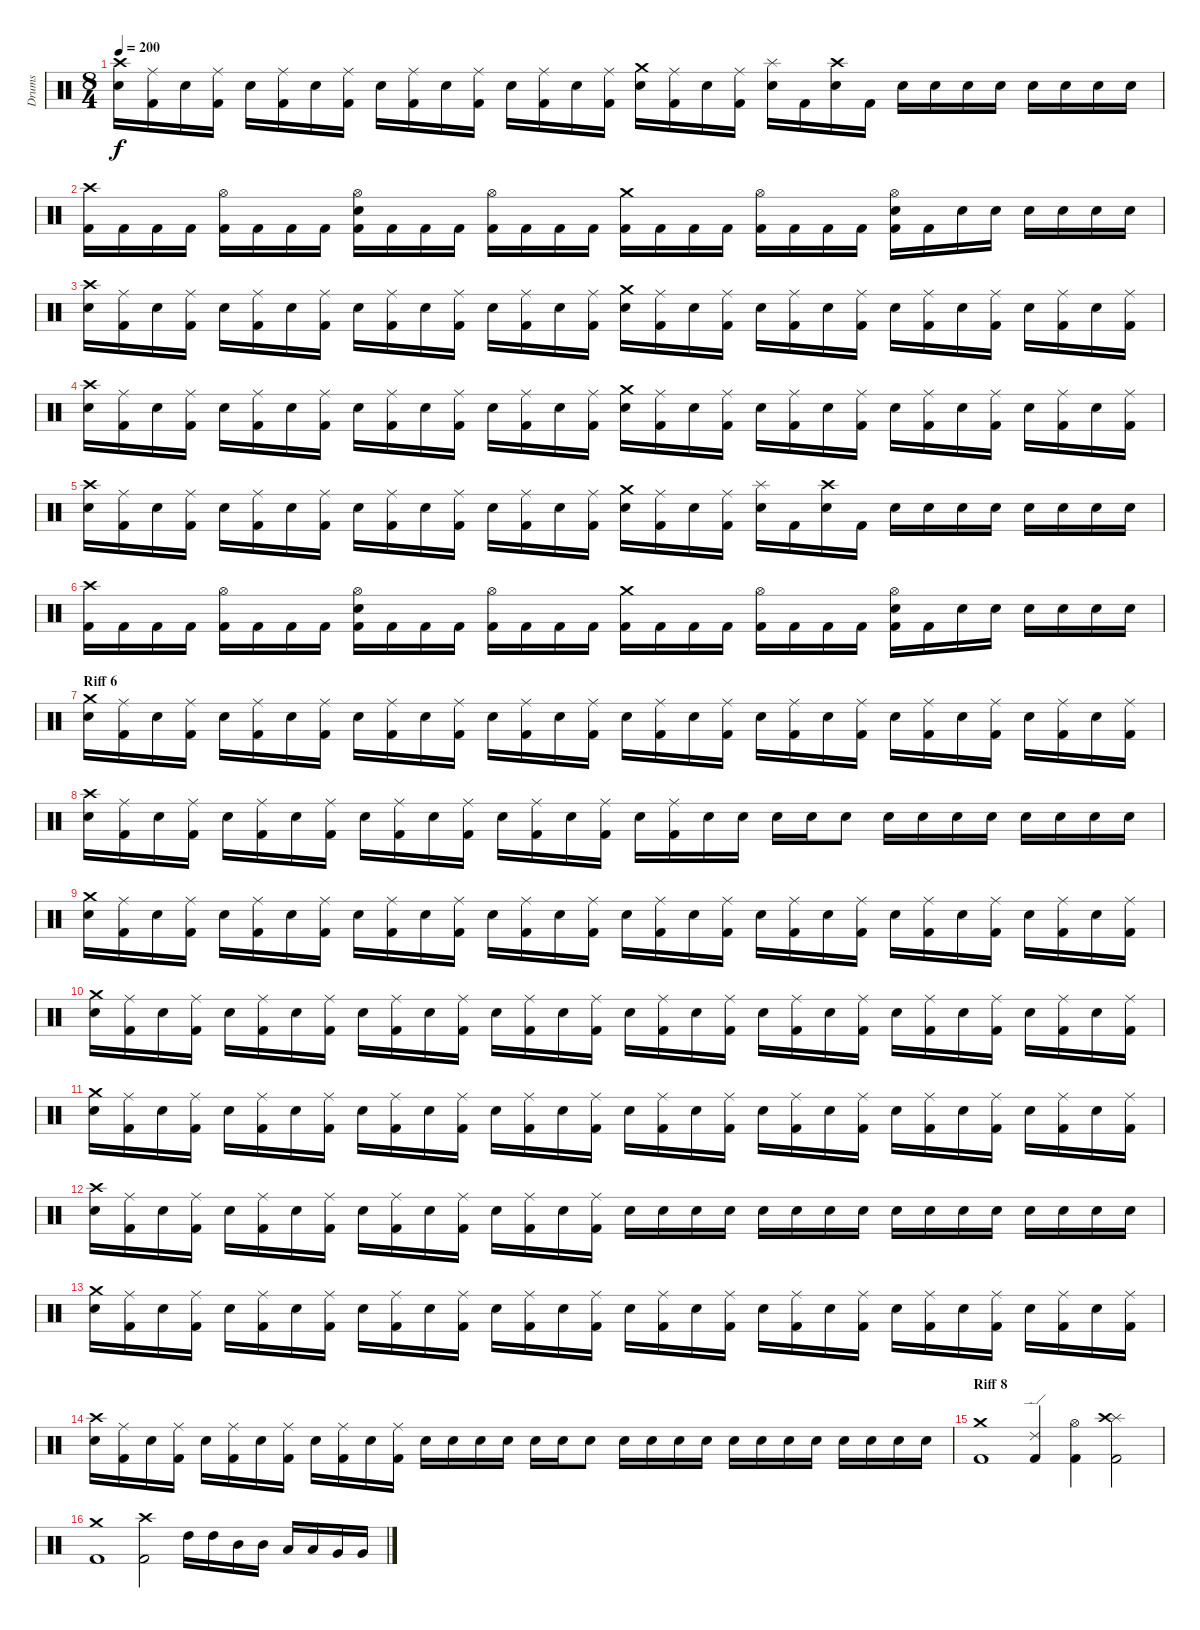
\track ("Drums" "Drums") {instrument percussion}
\staff {score}
\articulation defaults
\ts (8 4)
\tempo 200
\clef neutral
\ks c
("Crash high (hit)" "Electric Snare (hit)").16{dy f} ("Ride (middle)" "Kick (hit) 2").16 "Electric Snare (hit)".16 ("Ride (middle)" "Kick (hit) 2").16 "Electric Snare (hit)".16 ("Ride (middle)" "Kick (hit) 2").16 "Electric Snare (hit)".16 ("Ride (middle)" "Kick (hit) 2").16 "Electric Snare (hit)".16 ("Ride (middle)" "Kick (hit) 2").16 "Electric Snare (hit)".16 ("Ride (middle)" "Kick (hit) 2").16 "Electric Snare (hit)".16 ("Ride (middle)" "Kick (hit) 2").16 "Electric Snare (hit)".16 ("Ride (middle)" "Kick (hit) 2").16 ("Crash medium (hit)" "Electric Snare (hit)").16 ("Ride (middle)" "Kick (hit) 2").16 "Electric Snare (hit)".16 ("Ride (middle)" "Kick (hit) 2").16 ("Splash (hit)" "Electric Snare (hit)").16 "Kick (hit) 2".16 ("Crash high (hit)" "Electric Snare (hit)").16 "Kick (hit) 2".16 "Electric Snare (hit)".16 "Electric Snare (hit)".16 "Electric Snare (hit)".16 "Electric Snare (hit)".16 "Electric Snare (hit)".16 "Electric Snare (hit)".16 "Electric Snare (hit)".16 "Electric Snare (hit)".16 |
("Crash high (hit)" "Kick (hit) 2").16 "Kick (hit) 2".16 "Kick (hit) 2".16 "Kick (hit) 2".16 ("Hi-Hat (open)" "Kick (hit) 2").16 "Kick (hit) 2".16 "Kick (hit) 2".16 "Kick (hit) 2".16 ("Hi-Hat (open)" "Electric Snare (hit)" "Kick (hit) 2").16 "Kick (hit) 2".16 "Kick (hit) 2".16 "Kick (hit) 2".16 ("Hi-Hat (open)" "Kick (hit) 2").16 "Kick (hit) 2".16 "Kick (hit) 2".16 "Kick (hit) 2".16 ("Crash medium (hit)" "Kick (hit) 2").16 "Kick (hit) 2".16 "Kick (hit) 2".16 "Kick (hit) 2".16 ("Hi-Hat (open)" "Kick (hit) 2").16 "Kick (hit) 2".16 "Kick (hit) 2".16 "Kick (hit) 2".16 ("Hi-Hat (open)" "Electric Snare (hit)" "Kick (hit) 2").16 "Kick (hit) 2".16 "Electric Snare (hit)".16 "Electric Snare (hit)".16 "Electric Snare (hit)".16 "Electric Snare (hit)".16 "Electric Snare (hit)".16 "Electric Snare (hit)".16 |
("Crash high (hit)" "Electric Snare (hit)").16 ("Ride (middle)" "Kick (hit) 2").16 "Electric Snare (hit)".16 ("Ride (middle)" "Kick (hit) 2").16 "Electric Snare (hit)".16 ("Ride (middle)" "Kick (hit) 2").16 "Electric Snare (hit)".16 ("Ride (middle)" "Kick (hit) 2").16 "Electric Snare (hit)".16 ("Ride (middle)" "Kick (hit) 2").16 "Electric Snare (hit)".16 ("Ride (middle)" "Kick (hit) 2").16 "Electric Snare (hit)".16 ("Ride (middle)" "Kick (hit) 2").16 "Electric Snare (hit)".16 ("Ride (middle)" "Kick (hit) 2").16 ("Crash medium (hit)" "Electric Snare (hit)").16 ("Ride (middle)" "Kick (hit) 2").16 "Electric Snare (hit)".16 ("Ride (middle)" "Kick (hit) 2").16 "Electric Snare (hit)".16 ("Ride (middle)" "Kick (hit) 2").16 "Electric Snare (hit)".16 ("Ride (middle)" "Kick (hit) 2").16 "Electric Snare (hit)".16 ("Ride (middle)" "Kick (hit) 2").16 "Electric Snare (hit)".16 ("Ride (middle)" "Kick (hit) 2").16 "Electric Snare (hit)".16 ("Ride (middle)" "Kick (hit) 2").16 "Electric Snare (hit)".16 ("Ride (middle)" "Kick (hit) 2").16 |
("Crash high (hit)" "Electric Snare (hit)").16 ("Ride (middle)" "Kick (hit) 2").16 "Electric Snare (hit)".16 ("Ride (middle)" "Kick (hit) 2").16 "Electric Snare (hit)".16 ("Ride (middle)" "Kick (hit) 2").16 "Electric Snare (hit)".16 ("Ride (middle)" "Kick (hit) 2").16 "Electric Snare (hit)".16 ("Ride (middle)" "Kick (hit) 2").16 "Electric Snare (hit)".16 ("Ride (middle)" "Kick (hit) 2").16 "Electric Snare (hit)".16 ("Ride (middle)" "Kick (hit) 2").16 "Electric Snare (hit)".16 ("Ride (middle)" "Kick (hit) 2").16 ("Crash medium (hit)" "Electric Snare (hit)").16 ("Ride (middle)" "Kick (hit) 2").16 "Electric Snare (hit)".16 ("Ride (middle)" "Kick (hit) 2").16 "Electric Snare (hit)".16 ("Ride (middle)" "Kick (hit) 2").16 "Electric Snare (hit)".16 ("Ride (middle)" "Kick (hit) 2").16 "Electric Snare (hit)".16 ("Ride (middle)" "Kick (hit) 2").16 "Electric Snare (hit)".16 ("Ride (middle)" "Kick (hit) 2").16 "Electric Snare (hit)".16 ("Ride (middle)" "Kick (hit) 2").16 "Electric Snare (hit)".16 ("Ride (middle)" "Kick (hit) 2").16 |
("Crash high (hit)" "Electric Snare (hit)").16 ("Ride (middle)" "Kick (hit) 2").16 "Electric Snare (hit)".16 ("Ride (middle)" "Kick (hit) 2").16 "Electric Snare (hit)".16 ("Ride (middle)" "Kick (hit) 2").16 "Electric Snare (hit)".16 ("Ride (middle)" "Kick (hit) 2").16 "Electric Snare (hit)".16 ("Ride (middle)" "Kick (hit) 2").16 "Electric Snare (hit)".16 ("Ride (middle)" "Kick (hit) 2").16 "Electric Snare (hit)".16 ("Ride (middle)" "Kick (hit) 2").16 "Electric Snare (hit)".16 ("Ride (middle)" "Kick (hit) 2").16 ("Crash medium (hit)" "Electric Snare (hit)").16 ("Ride (middle)" "Kick (hit) 2").16 "Electric Snare (hit)".16 ("Ride (middle)" "Kick (hit) 2").16 ("Splash (hit)" "Electric Snare (hit)").16 "Kick (hit) 2".16 ("Crash high (hit)" "Electric Snare (hit)").16 "Kick (hit) 2".16 "Electric Snare (hit)".16 "Electric Snare (hit)".16 "Electric Snare (hit)".16 "Electric Snare (hit)".16 "Electric Snare (hit)".16 "Electric Snare (hit)".16 "Electric Snare (hit)".16 "Electric Snare (hit)".16 |
("Crash high (hit)" "Kick (hit) 2").16 "Kick (hit) 2".16 "Kick (hit) 2".16 "Kick (hit) 2".16 ("Hi-Hat (open)" "Kick (hit) 2").16 "Kick (hit) 2".16 "Kick (hit) 2".16 "Kick (hit) 2".16 ("Hi-Hat (open)" "Electric Snare (hit)" "Kick (hit) 2").16 "Kick (hit) 2".16 "Kick (hit) 2".16 "Kick (hit) 2".16 ("Hi-Hat (open)" "Kick (hit) 2").16 "Kick (hit) 2".16 "Kick (hit) 2".16 "Kick (hit) 2".16 ("Crash medium (hit)" "Kick (hit) 2").16 "Kick (hit) 2".16 "Kick (hit) 2".16 "Kick (hit) 2".16 ("Hi-Hat (open)" "Kick (hit) 2").16 "Kick (hit) 2".16 "Kick (hit) 2".16 "Kick (hit) 2".16 ("Hi-Hat (open)" "Electric Snare (hit)" "Kick (hit) 2").16 "Kick (hit) 2".16 "Electric Snare (hit)".16 "Electric Snare (hit)".16 "Electric Snare (hit)".16 "Electric Snare (hit)".16 "Electric Snare (hit)".16 "Electric Snare (hit)".16 |
\section ("" "Riff 6")
("Crash medium (hit)" "Electric Snare (hit)").16 ("Ride (middle)" "Kick (hit) 2").16 "Electric Snare (hit)".16 ("Ride (middle)" "Kick (hit) 2").16 "Electric Snare (hit)".16 ("Ride (middle)" "Kick (hit) 2").16 "Electric Snare (hit)".16 ("Ride (middle)" "Kick (hit) 2").16 "Electric Snare (hit)".16 ("Ride (middle)" "Kick (hit) 2").16 "Electric Snare (hit)".16 ("Ride (middle)" "Kick (hit) 2").16 "Electric Snare (hit)".16 ("Ride (middle)" "Kick (hit) 2").16 "Electric Snare (hit)".16 ("Ride (middle)" "Kick (hit) 2").16 "Electric Snare (hit)".16 ("Ride (middle)" "Kick (hit) 2").16 "Electric Snare (hit)".16 ("Ride (middle)" "Kick (hit) 2").16 "Electric Snare (hit)".16 ("Ride (middle)" "Kick (hit) 2").16 "Electric Snare (hit)".16 ("Ride (middle)" "Kick (hit) 2").16 "Electric Snare (hit)".16 ("Ride (middle)" "Kick (hit) 2").16 "Electric Snare (hit)".16 ("Ride (middle)" "Kick (hit) 2").16 "Electric Snare (hit)".16 ("Ride (middle)" "Kick (hit) 2").16 "Electric Snare (hit)".16 ("Ride (middle)" "Kick (hit) 2").16 |
("Crash high (hit)" "Electric Snare (hit)").16 ("Ride (middle)" "Kick (hit) 2").16 "Electric Snare (hit)".16 ("Ride (middle)" "Kick (hit) 2").16 "Electric Snare (hit)".16 ("Ride (middle)" "Kick (hit) 2").16 "Electric Snare (hit)".16 ("Ride (middle)" "Kick (hit) 2").16 "Electric Snare (hit)".16 ("Ride (middle)" "Kick (hit) 2").16 "Electric Snare (hit)".16 ("Ride (middle)" "Kick (hit) 2").16 "Electric Snare (hit)".16 ("Ride (middle)" "Kick (hit) 2").16 "Electric Snare (hit)".16 ("Ride (middle)" "Kick (hit) 2").16 "Electric Snare (hit)".16 ("Ride (middle)" "Kick (hit) 2").16 "Electric Snare (hit)".16 "Electric Snare (hit)".16 "Electric Snare (hit)".16 "Electric Snare (hit)".16 "Electric Snare (hit)".8 "Electric Snare (hit)".16 "Electric Snare (hit)".16 "Electric Snare (hit)".16 "Electric Snare (hit)".16 "Electric Snare (hit)".16 "Electric Snare (hit)".16 "Electric Snare (hit)".16 "Electric Snare (hit)".16 |
("Crash medium (hit)" "Electric Snare (hit)").16 ("Ride (middle)" "Kick (hit) 2").16 "Electric Snare (hit)".16 ("Ride (middle)" "Kick (hit) 2").16 "Electric Snare (hit)".16 ("Ride (middle)" "Kick (hit) 2").16 "Electric Snare (hit)".16 ("Ride (middle)" "Kick (hit) 2").16 "Electric Snare (hit)".16 ("Ride (middle)" "Kick (hit) 2").16 "Electric Snare (hit)".16 ("Ride (middle)" "Kick (hit) 2").16 "Electric Snare (hit)".16 ("Ride (middle)" "Kick (hit) 2").16 "Electric Snare (hit)".16 ("Ride (middle)" "Kick (hit) 2").16 "Electric Snare (hit)".16 ("Ride (middle)" "Kick (hit) 2").16 "Electric Snare (hit)".16 ("Ride (middle)" "Kick (hit) 2").16 "Electric Snare (hit)".16 ("Ride (middle)" "Kick (hit) 2").16 "Electric Snare (hit)".16 ("Ride (middle)" "Kick (hit) 2").16 "Electric Snare (hit)".16 ("Ride (middle)" "Kick (hit) 2").16 "Electric Snare (hit)".16 ("Ride (middle)" "Kick (hit) 2").16 "Electric Snare (hit)".16 ("Ride (middle)" "Kick (hit) 2").16 "Electric Snare (hit)".16 ("Ride (middle)" "Kick (hit) 2").16 |
("Crash medium (hit)" "Electric Snare (hit)").16 ("Ride (middle)" "Kick (hit) 2").16 "Electric Snare (hit)".16 ("Ride (middle)" "Kick (hit) 2").16 "Electric Snare (hit)".16 ("Ride (middle)" "Kick (hit) 2").16 "Electric Snare (hit)".16 ("Ride (middle)" "Kick (hit) 2").16 "Electric Snare (hit)".16 ("Ride (middle)" "Kick (hit) 2").16 "Electric Snare (hit)".16 ("Ride (middle)" "Kick (hit) 2").16 "Electric Snare (hit)".16 ("Ride (middle)" "Kick (hit) 2").16 "Electric Snare (hit)".16 ("Ride (middle)" "Kick (hit) 2").16 "Electric Snare (hit)".16 ("Ride (middle)" "Kick (hit) 2").16 "Electric Snare (hit)".16 ("Ride (middle)" "Kick (hit) 2").16 "Electric Snare (hit)".16 ("Ride (middle)" "Kick (hit) 2").16 "Electric Snare (hit)".16 ("Ride (middle)" "Kick (hit) 2").16 "Electric Snare (hit)".16 ("Ride (middle)" "Kick (hit) 2").16 "Electric Snare (hit)".16 ("Ride (middle)" "Kick (hit) 2").16 "Electric Snare (hit)".16 ("Ride (middle)" "Kick (hit) 2").16 "Electric Snare (hit)".16 ("Ride (middle)" "Kick (hit) 2").16 |
("Crash medium (hit)" "Electric Snare (hit)").16 ("Ride (middle)" "Kick (hit) 2").16 "Electric Snare (hit)".16 ("Ride (middle)" "Kick (hit) 2").16 "Electric Snare (hit)".16 ("Ride (middle)" "Kick (hit) 2").16 "Electric Snare (hit)".16 ("Ride (middle)" "Kick (hit) 2").16 "Electric Snare (hit)".16 ("Ride (middle)" "Kick (hit) 2").16 "Electric Snare (hit)".16 ("Ride (middle)" "Kick (hit) 2").16 "Electric Snare (hit)".16 ("Ride (middle)" "Kick (hit) 2").16 "Electric Snare (hit)".16 ("Ride (middle)" "Kick (hit) 2").16 "Electric Snare (hit)".16 ("Ride (middle)" "Kick (hit) 2").16 "Electric Snare (hit)".16 ("Ride (middle)" "Kick (hit) 2").16 "Electric Snare (hit)".16 ("Ride (middle)" "Kick (hit) 2").16 "Electric Snare (hit)".16 ("Ride (middle)" "Kick (hit) 2").16 "Electric Snare (hit)".16 ("Ride (middle)" "Kick (hit) 2").16 "Electric Snare (hit)".16 ("Ride (middle)" "Kick (hit) 2").16 "Electric Snare (hit)".16 ("Ride (middle)" "Kick (hit) 2").16 "Electric Snare (hit)".16 ("Ride (middle)" "Kick (hit) 2").16 |
("Crash high (hit)" "Electric Snare (hit)").16 ("Ride (middle)" "Kick (hit) 2").16 "Electric Snare (hit)".16 ("Ride (middle)" "Kick (hit) 2").16 "Electric Snare (hit)".16 ("Ride (middle)" "Kick (hit) 2").16 "Electric Snare (hit)".16 ("Ride (middle)" "Kick (hit) 2").16 "Electric Snare (hit)".16 ("Ride (middle)" "Kick (hit) 2").16 "Electric Snare (hit)".16 ("Ride (middle)" "Kick (hit) 2").16 "Electric Snare (hit)".16 ("Ride (middle)" "Kick (hit) 2").16 "Electric Snare (hit)".16 ("Ride (middle)" "Kick (hit) 2").16 "Electric Snare (hit)".16 "Electric Snare (hit)".16 "Electric Snare (hit)".16 "Electric Snare (hit)".16 "Electric Snare (hit)".16 "Electric Snare (hit)".16 "Electric Snare (hit)".16 "Electric Snare (hit)".16 "Electric Snare (hit)".16 "Electric Snare (hit)".16 "Electric Snare (hit)".16 "Electric Snare (hit)".16 "Electric Snare (hit)".16 "Electric Snare (hit)".16 "Electric Snare (hit)".16 "Electric Snare (hit)".16 |
("Crash medium (hit)" "Electric Snare (hit)").16 ("Ride (middle)" "Kick (hit) 2").16 "Electric Snare (hit)".16 ("Ride (middle)" "Kick (hit) 2").16 "Electric Snare (hit)".16 ("Ride (middle)" "Kick (hit) 2").16 "Electric Snare (hit)".16 ("Ride (middle)" "Kick (hit) 2").16 "Electric Snare (hit)".16 ("Ride (middle)" "Kick (hit) 2").16 "Electric Snare (hit)".16 ("Ride (middle)" "Kick (hit) 2").16 "Electric Snare (hit)".16 ("Ride (middle)" "Kick (hit) 2").16 "Electric Snare (hit)".16 ("Ride (middle)" "Kick (hit) 2").16 "Electric Snare (hit)".16 ("Ride (middle)" "Kick (hit) 2").16 "Electric Snare (hit)".16 ("Ride (middle)" "Kick (hit) 2").16 "Electric Snare (hit)".16 ("Ride (middle)" "Kick (hit) 2").16 "Electric Snare (hit)".16 ("Ride (middle)" "Kick (hit) 2").16 "Electric Snare (hit)".16 ("Ride (middle)" "Kick (hit) 2").16 "Electric Snare (hit)".16 ("Ride (middle)" "Kick (hit) 2").16 "Electric Snare (hit)".16 ("Ride (middle)" "Kick (hit) 2").16 "Electric Snare (hit)".16 ("Ride (middle)" "Kick (hit) 2").16 |
("Crash high (hit)" "Electric Snare (hit)").16 ("Ride (middle)" "Kick (hit) 2").16 "Electric Snare (hit)".16 ("Ride (middle)" "Kick (hit) 2").16 "Electric Snare (hit)".16 ("Ride (middle)" "Kick (hit) 2").16 "Electric Snare (hit)".16 ("Ride (middle)" "Kick (hit) 2").16 "Electric Snare (hit)".16 ("Ride (middle)" "Kick (hit) 2").16 "Electric Snare (hit)".16 ("Ride (middle)" "Kick (hit) 2").16 "Electric Snare (hit)".16 "Electric Snare (hit)".16 "Electric Snare (hit)".16 "Electric Snare (hit)".16 "Electric Snare (hit)".16 "Electric Snare (hit)".16 "Electric Snare (hit)".8 "Electric Snare (hit)".16 "Electric Snare (hit)".16 "Electric Snare (hit)".16 "Electric Snare (hit)".16 "Electric Snare (hit)".16 "Electric Snare (hit)".16 "Electric Snare (hit)".16 "Electric Snare (hit)".16 "Electric Snare (hit)".16 "Electric Snare (hit)".16 "Electric Snare (hit)".16 "Electric Snare (hit)".16 |
\section ("" "Riff 8")
("Crash medium (hit)" "Kick (hit) 2").1 ("Ride (edge) 2" "Kick (hit) 2").4 ("Hi-Hat (open)" "Kick (hit) 2").4 ("Splash (hit)" "Crash high (hit)" "Kick (hit) 2").2 |
("Crash medium (hit)" "Kick (hit) 2").1 ("Crash high (hit)" "Kick (hit) 2").2 "High Tom (hit)".16 "High Tom (hit)".16 "Mid Tom (hit)".16 "Mid Tom (hit)".16 "Low Tom (hit)".16 "Low Tom (hit)".16 "Very Low Tom (hit)".16 "Very Low Tom (hit)".16
